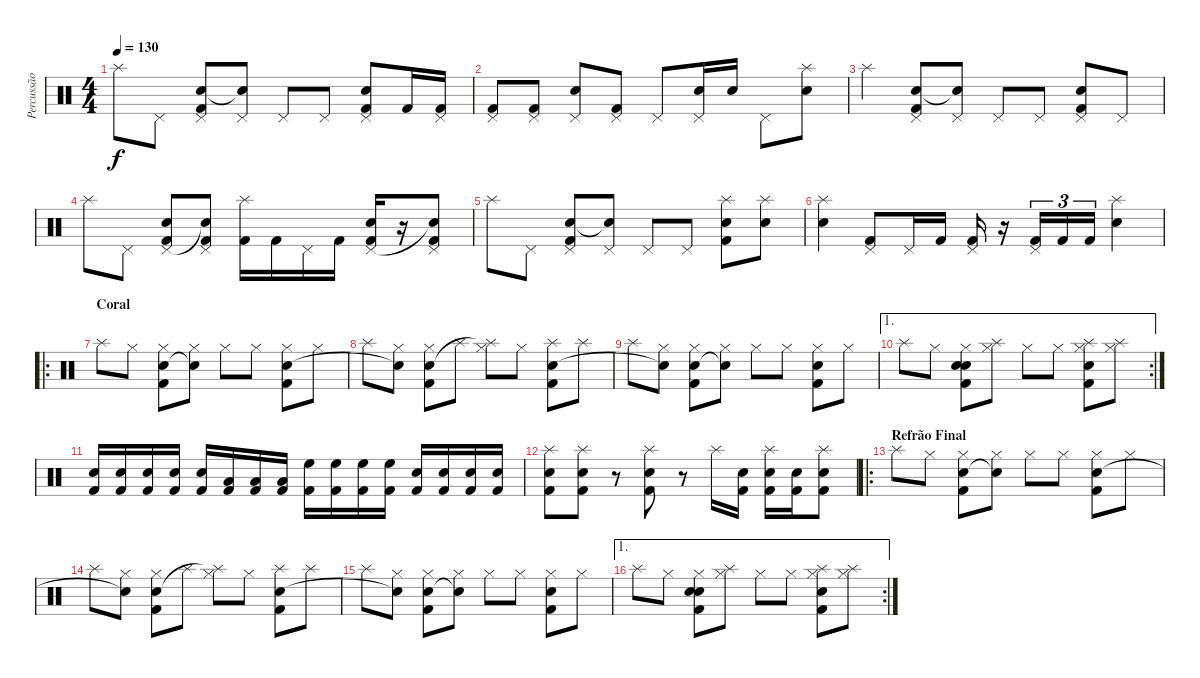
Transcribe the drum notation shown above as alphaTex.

\track ("Percussão" "Percussão") {instrument percussion}
\staff {score}
\articulation defaults
\ts (4 4)
\tempo 130
\clef neutral
\ks c "Splash (hit)".8{dy f} "Pedal Hi-Hat (hit)".8
("Kick (hit) 2" "Snare (hit) 2" "Pedal Hi-Hat (hit)").8 ("Pedal Hi-Hat (hit)" "Snare (hit)"{t}).8 "Pedal Hi-Hat (hit)".8 "Pedal Hi-Hat (hit)".8 ("Kick (hit) 2" "Snare (hit) 2" "Pedal Hi-Hat (hit)").8 "Kick (hit) 2".16 ("Kick (hit) 2" "Pedal Hi-Hat (hit)").16 |
("Kick (hit) 2" "Pedal Hi-Hat (hit)").8 ("Kick (hit) 2" "Pedal Hi-Hat (hit)").8 ("Snare (hit) 2" "Pedal Hi-Hat (hit)").8 ("Kick (hit) 2" "Pedal Hi-Hat (hit)").8 "Pedal Hi-Hat (hit)".8 ("Snare (hit) 2" "Pedal Hi-Hat (hit)").16 "Snare (hit) 2".16 "Pedal Hi-Hat (hit)".8 ("Snare (hit) 2" "Splash (hit)").8 |
"Splash (hit)".4 ("Kick (hit) 2" "Snare (hit) 2" "Pedal Hi-Hat (hit)").8 ("Pedal Hi-Hat (hit)" "Snare (hit)"{t}).8 "Pedal Hi-Hat (hit)".8 "Pedal Hi-Hat (hit)".8 ("Kick (hit) 2" "Snare (hit) 2" "Pedal Hi-Hat (hit)").8 "Pedal Hi-Hat (hit)".8 |
"Splash (hit)".8 "Pedal Hi-Hat (hit)".8 ("Kick (hit) 2" "Snare (hit) 2" "Pedal Hi-Hat (hit)").8 ("Kick (hit) 2" "Pedal Hi-Hat (hit)" "Snare (hit)"{t}).8 ("Kick (hit) 2" "Splash (hit)").16 "Kick (hit) 2".16 "Pedal Hi-Hat (hit)".16 "Kick (hit) 2".16 ("Kick (hit) 2" "Snare (hit) 2" "Pedal Hi-Hat (hit)").16 r.16 ("Kick (hit) 2" "Pedal Hi-Hat (hit)" "Snare (hit)"{t}).8 |
"Splash (hit)".8 "Pedal Hi-Hat (hit)".8 ("Kick (hit) 2" "Snare (hit) 2" "Pedal Hi-Hat (hit)").8 ("Pedal Hi-Hat (hit)" "Snare (hit)"{t}).8 "Pedal Hi-Hat (hit)".8 "Pedal Hi-Hat (hit)".8 ("Kick (hit) 2" "Snare (hit) 2" "Splash (hit)").8 ("Snare (hit) 2" "Splash (hit)").8 |
("Snare (hit) 2" "Splash (hit)").4 ("Kick (hit) 2" "Pedal Hi-Hat (hit)").8 "Pedal Hi-Hat (hit)".16 "Kick (hit) 2".16 ("Kick (hit) 2" "Pedal Hi-Hat (hit)").16 r.16 ("Kick (hit) 2" "Pedal Hi-Hat (hit)").16{tu (3 2)} "Kick (hit) 2".16{tu (3 2)} "Kick (hit) 2".16{tu (3 2)} ("Snare (hit) 2" "Splash (hit)").4 |
\ro
\section ("" "Coral")
"Splash (hit)".8 "Hi-Hat (closed)".8 ("Kick (hit) 2" "Snare (hit) 2" "Hi-Hat (closed)").8 ("Hi-Hat (closed)" "Snare (hit)"{t}).8 "Hi-Hat (closed)".8 "Hi-Hat (closed)".8 ("Kick (hit) 2" "Snare (hit) 2" "Hi-Hat (closed)").8 "Hi-Hat (closed)".8 |
"Splash (hit)".8 ("Hi-Hat (closed)" "Snare (hit)"{t}).8 ("Kick (hit) 2" "Snare (hit) 2" "Hi-Hat (closed)").8 "Splash (hit)".8 ("Hi-Hat (closed)" "Splash (hit)"{t}).8 "Hi-Hat (closed)".8 ("Kick (hit) 2" "Snare (hit) 2" "Splash (hit)").8 "Splash (hit)".8 |
"Splash (hit)".8 ("Hi-Hat (closed)" "Snare (hit)"{t}).8 ("Kick (hit) 2" "Snare (hit) 2" "Hi-Hat (closed)").8 ("Hi-Hat (closed)" "Snare (hit)"{t}).8 "Hi-Hat (closed)".8 "Hi-Hat (closed)".8 ("Kick (hit) 2" "Snare (hit) 2" "Hi-Hat (closed)").8 "Hi-Hat (closed)".8 |
\ae 1
\rc 2 "Splash (hit)".8 "Hi-Hat (closed)".8
("Kick (hit) 2" "Snare (hit) 2" "Hi-Hat (closed)" "Snare (hit)").8 ("Hi-Hat (closed)" "Splash (hit)").8 "Hi-Hat (closed)".8 "Hi-Hat (closed)".8 ("Kick (hit) 2" "Snare (hit) 2" "Hi-Hat (closed)" "Splash (hit)").8 ("Hi-Hat (closed)" "Splash (hit)").8 |
("Kick (hit) 2" "Snare (hit) 2").16 ("Kick (hit) 2" "Snare (hit) 2").16 ("Kick (hit) 2" "Snare (hit) 2").16 ("Kick (hit) 2" "Snare (hit) 2").16 ("Kick (hit) 2" "Snare (hit) 2").16 ("Kick (hit) 2" "Low Tom (hit)").16 ("Kick (hit) 2" "Low Tom (hit)").16 ("Kick (hit) 2" "Low Tom (hit)").16 ("Kick (hit) 2" "High Floor Tom (hit)").16 ("Kick (hit) 2" "High Floor Tom (hit)").16 ("Kick (hit) 2" "High Floor Tom (hit)").16 ("Kick (hit) 2" "High Floor Tom (hit)").16 ("Kick (hit) 2" "Snare (hit) 2").16 ("Kick (hit) 2" "Snare (hit) 2").16 ("Kick (hit) 2" "Snare (hit) 2").16 ("Kick (hit) 2" "Snare (hit) 2").16 |
("Kick (hit) 2" "Snare (hit) 2" "Splash (hit)").8 ("Kick (hit) 2" "Snare (hit) 2" "Splash (hit)").8 r.8 ("Kick (hit) 2" "Snare (hit) 2" "Splash (hit)").8 r.8 "Splash (hit)".16 ("Kick (hit) 2" "Snare (hit) 2").16 ("Kick (hit) 2" "Snare (hit) 2" "Splash (hit)").16 ("Kick (hit) 2" "Snare (hit) 2").16 ("Kick (hit) 2" "Snare (hit) 2" "Splash (hit)").8 |
\ro
\section ("" "Refrão Final")
"Splash (hit)".8 "Hi-Hat (closed)".8 ("Kick (hit) 2" "Snare (hit) 2" "Hi-Hat (closed)").8 ("Hi-Hat (closed)" "Snare (hit)"{t}).8 "Hi-Hat (closed)".8 "Hi-Hat (closed)".8 ("Kick (hit) 2" "Snare (hit) 2" "Hi-Hat (closed)").8 "Hi-Hat (closed)".8 |
"Splash (hit)".8 ("Hi-Hat (closed)" "Snare (hit)"{t}).8 ("Kick (hit) 2" "Snare (hit) 2" "Hi-Hat (closed)").8 "Splash (hit)".8 ("Hi-Hat (closed)" "Splash (hit)"{t}).8 "Hi-Hat (closed)".8 ("Kick (hit) 2" "Snare (hit) 2" "Splash (hit)").8 "Splash (hit)".8 |
"Splash (hit)".8 ("Hi-Hat (closed)" "Snare (hit)"{t}).8 ("Kick (hit) 2" "Snare (hit) 2" "Hi-Hat (closed)").8 ("Hi-Hat (closed)" "Snare (hit)"{t}).8 "Hi-Hat (closed)".8 "Hi-Hat (closed)".8 ("Kick (hit) 2" "Snare (hit) 2" "Hi-Hat (closed)").8 "Hi-Hat (closed)".8 |
\ae 1
\rc 2 "Splash (hit)".8 "Hi-Hat (closed)".8
("Kick (hit) 2" "Snare (hit) 2" "Hi-Hat (closed)" "Snare (hit)").8 ("Hi-Hat (closed)" "Splash (hit)").8 "Hi-Hat (closed)".8 "Hi-Hat (closed)".8 ("Kick (hit) 2" "Snare (hit) 2" "Hi-Hat (closed)" "Splash (hit)").8 ("Hi-Hat (closed)" "Splash (hit)").8
